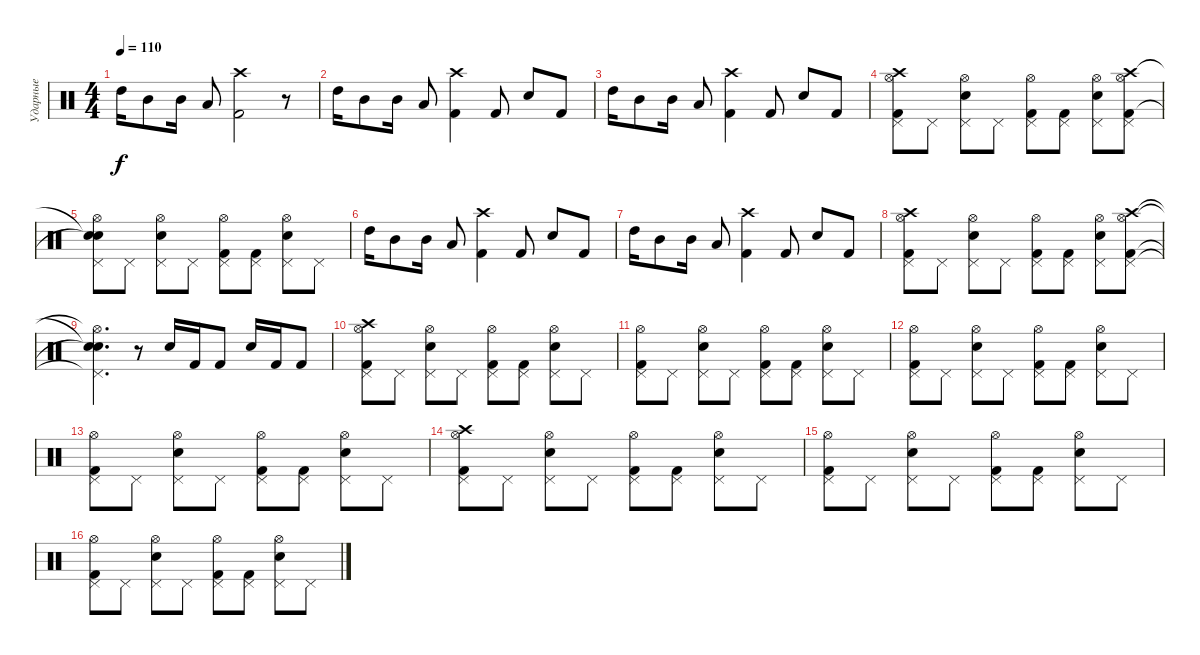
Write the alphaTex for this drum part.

\track ("Ударные" "Ударные") {instrument percussion}
\staff {score}
\articulation defaults
\ts (4 4)
\tempo 110
\clef neutral
\ks c "High Tom (hit)".16{dy f} "Mid Tom (hit)".8 "Mid Tom (hit)".16 "Low Tom (hit)".8
("Kick (hit) 2" "Crash high (hit)").2 r.8 |
"High Tom (hit)".16 "Mid Tom (hit)".8 "Mid Tom (hit)".16 "Low Tom (hit)".8 ("Kick (hit) 2" "Crash high (hit)").4 "Kick (hit) 2".8 "Snare (hit) 2".8 "Kick (hit) 2".8 |
"High Tom (hit)".16 "Mid Tom (hit)".8 "Mid Tom (hit)".16 "Low Tom (hit)".8 ("Kick (hit) 2" "Crash high (hit)").4 "Kick (hit) 2".8 "Snare (hit) 2".8 "Kick (hit) 2".8 |
("Kick (hit) 2" "Crash high (hit)" "Pedal Hi-Hat (hit)" "Hi-Hat (open)").8 "Pedal Hi-Hat (hit)".8 ("Snare (hit) 2" "Pedal Hi-Hat (hit)" "Hi-Hat (open)").8 "Pedal Hi-Hat (hit)".8 ("Kick (hit) 2" "Pedal Hi-Hat (hit)" "Hi-Hat (open)").8 ("Kick (hit) 2" "Pedal Hi-Hat (hit)").8 ("Snare (hit) 2" "Pedal Hi-Hat (hit)" "Hi-Hat (open)").8 ("Kick (hit) 2" "Crash high (hit)" "Pedal Hi-Hat (hit)" "Hi-Hat (open)").8 |
("Snare (hit)"{t} "Snare (hit)"{t} "Pedal Hi-Hat (hit)" "Hi-Hat (open)").8 "Pedal Hi-Hat (hit)".8 ("Snare (hit) 2" "Pedal Hi-Hat (hit)" "Hi-Hat (open)").8 "Pedal Hi-Hat (hit)".8 ("Kick (hit) 2" "Pedal Hi-Hat (hit)" "Hi-Hat (open)").8 ("Kick (hit) 2" "Pedal Hi-Hat (hit)").8 ("Snare (hit) 2" "Pedal Hi-Hat (hit)" "Hi-Hat (open)").8 "Pedal Hi-Hat (hit)".8 |
"High Tom (hit)".16 "Mid Tom (hit)".8 "Mid Tom (hit)".16 "Low Tom (hit)".8 ("Kick (hit) 2" "Crash high (hit)").4 "Kick (hit) 2".8 "Snare (hit) 2".8 "Kick (hit) 2".8 |
"High Tom (hit)".16 "Mid Tom (hit)".8 "Mid Tom (hit)".16 "Low Tom (hit)".8 ("Kick (hit) 2" "Crash high (hit)").4 "Kick (hit) 2".8 "Snare (hit) 2".8 "Kick (hit) 2".8 |
("Kick (hit) 2" "Crash high (hit)" "Pedal Hi-Hat (hit)" "Hi-Hat (open)").8 "Pedal Hi-Hat (hit)".8 ("Snare (hit) 2" "Pedal Hi-Hat (hit)" "Hi-Hat (open)").8 "Pedal Hi-Hat (hit)".8 ("Kick (hit) 2" "Pedal Hi-Hat (hit)" "Hi-Hat (open)").8 ("Kick (hit) 2" "Pedal Hi-Hat (hit)").8 ("Snare (hit) 2" "Pedal Hi-Hat (hit)" "Hi-Hat (open)").8 ("Kick (hit) 2" "Crash high (hit)" "Pedal Hi-Hat (hit)" "Hi-Hat (open)").8 |
("Snare (hit)"{t} "Snare (hit)"{t} "Pedal Hi-Hat (hit)"{t} "Hi-Hat (open)"{t}).4{d} r.8 "Snare (hit) 2".16 "Kick (hit) 2".16 "Kick (hit) 2".8 "Snare (hit) 2".16 "Kick (hit) 2".16 "Kick (hit) 2".8 |
("Kick (hit) 2" "Crash high (hit)" "Pedal Hi-Hat (hit)" "Hi-Hat (open)").8 "Pedal Hi-Hat (hit)".8 ("Snare (hit) 2" "Pedal Hi-Hat (hit)" "Hi-Hat (open)").8 "Pedal Hi-Hat (hit)".8 ("Kick (hit) 2" "Pedal Hi-Hat (hit)" "Hi-Hat (open)").8 ("Kick (hit) 2" "Pedal Hi-Hat (hit)").8 ("Snare (hit) 2" "Pedal Hi-Hat (hit)" "Hi-Hat (open)").8 "Pedal Hi-Hat (hit)".8 |
("Kick (hit) 2" "Pedal Hi-Hat (hit)" "Hi-Hat (open)").8 "Pedal Hi-Hat (hit)".8 ("Snare (hit) 2" "Pedal Hi-Hat (hit)" "Hi-Hat (open)").8 "Pedal Hi-Hat (hit)".8 ("Kick (hit) 2" "Pedal Hi-Hat (hit)" "Hi-Hat (open)").8 ("Kick (hit) 2" "Pedal Hi-Hat (hit)").8 ("Snare (hit) 2" "Pedal Hi-Hat (hit)" "Hi-Hat (open)").8 "Pedal Hi-Hat (hit)".8 |
("Kick (hit) 2" "Pedal Hi-Hat (hit)" "Hi-Hat (open)").8 "Pedal Hi-Hat (hit)".8 ("Snare (hit) 2" "Pedal Hi-Hat (hit)" "Hi-Hat (open)").8 "Pedal Hi-Hat (hit)".8 ("Kick (hit) 2" "Pedal Hi-Hat (hit)" "Hi-Hat (open)").8 ("Kick (hit) 2" "Pedal Hi-Hat (hit)").8 ("Snare (hit) 2" "Pedal Hi-Hat (hit)" "Hi-Hat (open)").8 "Pedal Hi-Hat (hit)".8 |
("Kick (hit) 2" "Pedal Hi-Hat (hit)" "Hi-Hat (open)").8 "Pedal Hi-Hat (hit)".8 ("Snare (hit) 2" "Pedal Hi-Hat (hit)" "Hi-Hat (open)").8 "Pedal Hi-Hat (hit)".8 ("Kick (hit) 2" "Pedal Hi-Hat (hit)" "Hi-Hat (open)").8 ("Kick (hit) 2" "Pedal Hi-Hat (hit)").8 ("Snare (hit) 2" "Pedal Hi-Hat (hit)" "Hi-Hat (open)").8 "Pedal Hi-Hat (hit)".8 |
("Kick (hit) 2" "Crash high (hit)" "Pedal Hi-Hat (hit)" "Hi-Hat (open)").8 "Pedal Hi-Hat (hit)".8 ("Snare (hit) 2" "Pedal Hi-Hat (hit)" "Hi-Hat (open)").8 "Pedal Hi-Hat (hit)".8 ("Kick (hit) 2" "Pedal Hi-Hat (hit)" "Hi-Hat (open)").8 ("Kick (hit) 2" "Pedal Hi-Hat (hit)").8 ("Snare (hit) 2" "Pedal Hi-Hat (hit)" "Hi-Hat (open)").8 "Pedal Hi-Hat (hit)".8 |
("Kick (hit) 2" "Pedal Hi-Hat (hit)" "Hi-Hat (open)").8 "Pedal Hi-Hat (hit)".8 ("Snare (hit) 2" "Pedal Hi-Hat (hit)" "Hi-Hat (open)").8 "Pedal Hi-Hat (hit)".8 ("Kick (hit) 2" "Pedal Hi-Hat (hit)" "Hi-Hat (open)").8 ("Kick (hit) 2" "Pedal Hi-Hat (hit)").8 ("Snare (hit) 2" "Pedal Hi-Hat (hit)" "Hi-Hat (open)").8 "Pedal Hi-Hat (hit)".8 |
("Kick (hit) 2" "Pedal Hi-Hat (hit)" "Hi-Hat (open)").8 "Pedal Hi-Hat (hit)".8 ("Snare (hit) 2" "Pedal Hi-Hat (hit)" "Hi-Hat (open)").8 "Pedal Hi-Hat (hit)".8 ("Kick (hit) 2" "Pedal Hi-Hat (hit)" "Hi-Hat (open)").8 ("Kick (hit) 2" "Pedal Hi-Hat (hit)").8 ("Snare (hit) 2" "Pedal Hi-Hat (hit)" "Hi-Hat (open)").8 "Pedal Hi-Hat (hit)".8
